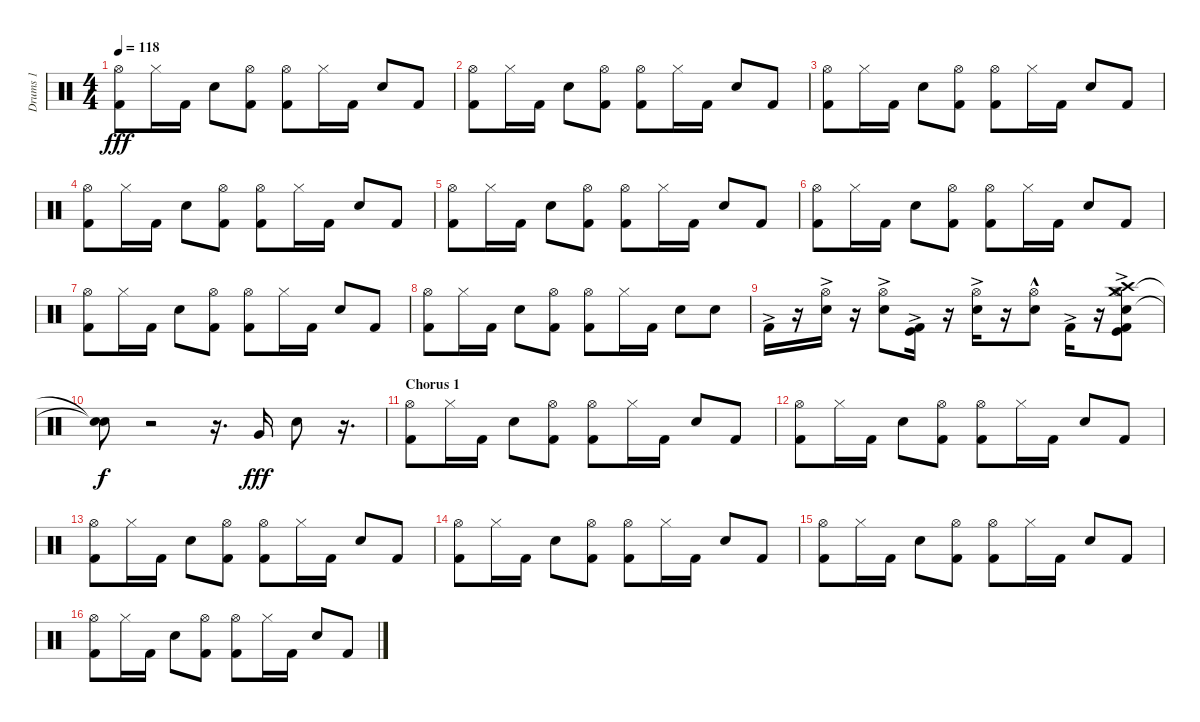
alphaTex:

\track ("Drums 1" "Drums 1") {instrument percussion}
\staff {score}
\articulation defaults
\ts (4 4)
\tempo 118
\clef neutral
\ks c
("Hi-Hat (open)" "Kick (hit) 2").8{dy fff} "Hi-Hat (closed)".16 "Kick (hit) 2".16 "Electric Snare (hit)".8 ("Hi-Hat (open)" "Kick (hit) 2").8 ("Hi-Hat (open)" "Kick (hit) 2").8 "Hi-Hat (closed)".16 "Kick (hit) 2".16 "Electric Snare (hit)".8 "Kick (hit) 2".8 |
("Hi-Hat (open)" "Kick (hit) 2").8 "Hi-Hat (closed)".16 "Kick (hit) 2".16 "Electric Snare (hit)".8 ("Hi-Hat (open)" "Kick (hit) 2").8 ("Hi-Hat (open)" "Kick (hit) 2").8 "Hi-Hat (closed)".16 "Kick (hit) 2".16 "Electric Snare (hit)".8 "Kick (hit) 2".8 |
("Hi-Hat (open)" "Kick (hit) 2").8 "Hi-Hat (closed)".16 "Kick (hit) 2".16 "Electric Snare (hit)".8 ("Hi-Hat (open)" "Kick (hit) 2").8 ("Hi-Hat (open)" "Kick (hit) 2").8 "Hi-Hat (closed)".16 "Kick (hit) 2".16 "Electric Snare (hit)".8 "Kick (hit) 2".8 |
("Hi-Hat (open)" "Kick (hit) 2").8 "Hi-Hat (closed)".16 "Kick (hit) 2".16 "Electric Snare (hit)".8 ("Hi-Hat (open)" "Kick (hit) 2").8 ("Hi-Hat (open)" "Kick (hit) 2").8 "Hi-Hat (closed)".16 "Kick (hit) 2".16 "Electric Snare (hit)".8 "Kick (hit) 2".8 |
("Hi-Hat (open)" "Kick (hit) 2").8 "Hi-Hat (closed)".16 "Kick (hit) 2".16 "Electric Snare (hit)".8 ("Hi-Hat (open)" "Kick (hit) 2").8 ("Hi-Hat (open)" "Kick (hit) 2").8 "Hi-Hat (closed)".16 "Kick (hit) 2".16 "Electric Snare (hit)".8 "Kick (hit) 2".8 |
("Hi-Hat (open)" "Kick (hit) 2").8 "Hi-Hat (closed)".16 "Kick (hit) 2".16 "Electric Snare (hit)".8 ("Hi-Hat (open)" "Kick (hit) 2").8 ("Hi-Hat (open)" "Kick (hit) 2").8 "Hi-Hat (closed)".16 "Kick (hit) 2".16 "Electric Snare (hit)".8 "Kick (hit) 2".8 |
("Hi-Hat (open)" "Kick (hit) 2").8 "Hi-Hat (closed)".16 "Kick (hit) 2".16 "Electric Snare (hit)".8 ("Hi-Hat (open)" "Kick (hit) 2").8 ("Hi-Hat (open)" "Kick (hit) 2").8 "Hi-Hat (closed)".16 "Kick (hit) 2".16 "Electric Snare (hit)".8 "Kick (hit) 2".8 |
("Hi-Hat (open)" "Kick (hit) 2").8 "Hi-Hat (closed)".16 "Kick (hit) 2".16 "Electric Snare (hit)".8 ("Hi-Hat (open)" "Kick (hit) 2").8 ("Hi-Hat (open)" "Kick (hit) 2").8 "Hi-Hat (closed)".16 "Kick (hit) 2".16 "Electric Snare (hit)".8 "Electric Snare (hit)".8 |
"Kick (hit) 2"{ac}.16 r.16 ("Hi-Hat (open)"{ac} "Electric Snare (hit)"{ac}).16 r.16 ("Hi-Hat (open)"{ac} "Electric Snare (hit)"{ac}).8 ("Kick (hit) 2"{ac} "Kick (hit)").16 r.16 ("Hi-Hat (open)" "Electric Snare (hit)"{ac}).16 r.16 ("Hi-Hat (open)" "Electric Snare (hit)"{hac}).8 "Kick (hit) 2"{ac}.16 r.16 ("Hi-Hat (open)"{ac} "Electric Snare (hit)"{ac} "Kick (hit) 2" "Kick (hit)" "Crash high (hit)" "Crash medium (hit)").8 |
("Snare (hit)"{t} "Snare (hit)"{t}).8{dy f} r.2 r.16{d} "Very Low Tom (hit)".16{dy fff} "Electric Snare (hit)".8 r.16{d} |
\section ("" "Chorus 1")
("Hi-Hat (open)" "Kick (hit) 2").8 "Hi-Hat (closed)".16 "Kick (hit) 2".16 "Electric Snare (hit)".8 ("Hi-Hat (open)" "Kick (hit) 2").8 ("Hi-Hat (open)" "Kick (hit) 2").8 "Hi-Hat (closed)".16 "Kick (hit) 2".16 "Electric Snare (hit)".8 "Kick (hit) 2".8 |
("Hi-Hat (open)" "Kick (hit) 2").8 "Hi-Hat (closed)".16 "Kick (hit) 2".16 "Electric Snare (hit)".8 ("Hi-Hat (open)" "Kick (hit) 2").8 ("Hi-Hat (open)" "Kick (hit) 2").8 "Hi-Hat (closed)".16 "Kick (hit) 2".16 "Electric Snare (hit)".8 "Kick (hit) 2".8 |
("Hi-Hat (open)" "Kick (hit) 2").8 "Hi-Hat (closed)".16 "Kick (hit) 2".16 "Electric Snare (hit)".8 ("Hi-Hat (open)" "Kick (hit) 2").8 ("Hi-Hat (open)" "Kick (hit) 2").8 "Hi-Hat (closed)".16 "Kick (hit) 2".16 "Electric Snare (hit)".8 "Kick (hit) 2".8 |
("Hi-Hat (open)" "Kick (hit) 2").8 "Hi-Hat (closed)".16 "Kick (hit) 2".16 "Electric Snare (hit)".8 ("Hi-Hat (open)" "Kick (hit) 2").8 ("Hi-Hat (open)" "Kick (hit) 2").8 "Hi-Hat (closed)".16 "Kick (hit) 2".16 "Electric Snare (hit)".8 "Kick (hit) 2".8 |
("Hi-Hat (open)" "Kick (hit) 2").8 "Hi-Hat (closed)".16 "Kick (hit) 2".16 "Electric Snare (hit)".8 ("Hi-Hat (open)" "Kick (hit) 2").8 ("Hi-Hat (open)" "Kick (hit) 2").8 "Hi-Hat (closed)".16 "Kick (hit) 2".16 "Electric Snare (hit)".8 "Kick (hit) 2".8 |
("Hi-Hat (open)" "Kick (hit) 2").8 "Hi-Hat (closed)".16 "Kick (hit) 2".16 "Electric Snare (hit)".8 ("Hi-Hat (open)" "Kick (hit) 2").8 ("Hi-Hat (open)" "Kick (hit) 2").8 "Hi-Hat (closed)".16 "Kick (hit) 2".16 "Electric Snare (hit)".8 "Kick (hit) 2".8
